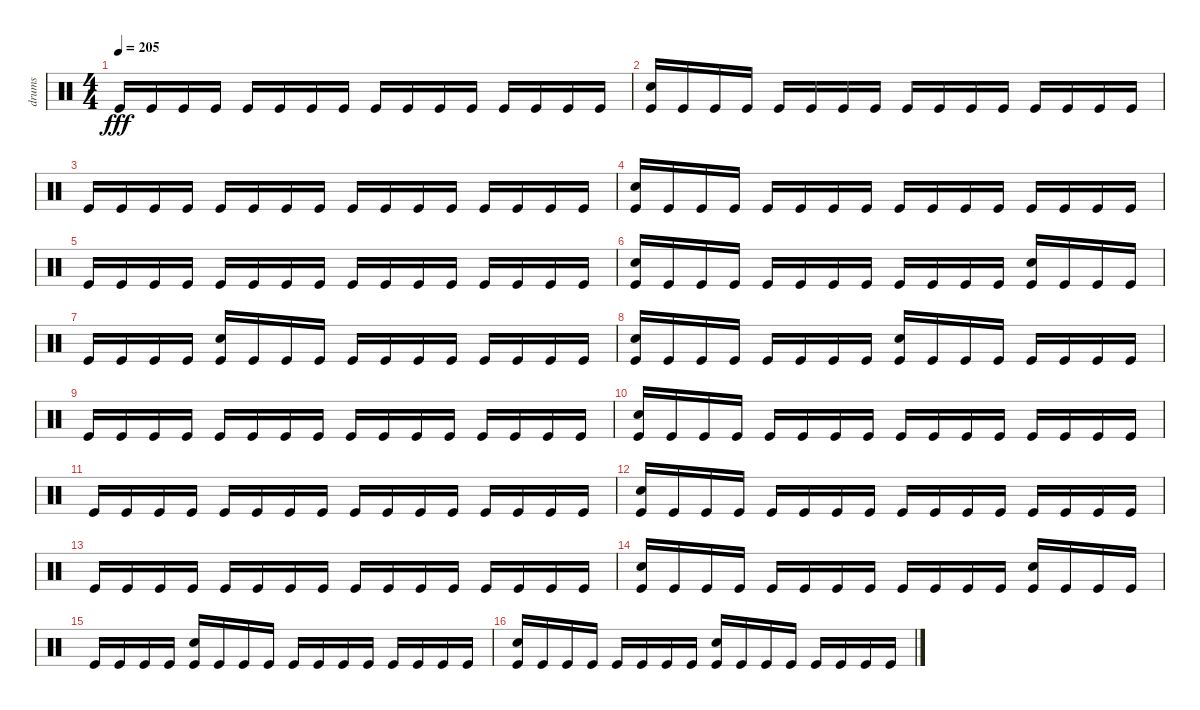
\track ("drums" "drums") {instrument percussion}
\staff {score}
\articulation defaults
\ts (4 4)
\tempo 205
\clef neutral
\ks c "Kick (hit)".16{dy fff} "Kick (hit)".16 "Kick (hit)".16 "Kick (hit)".16 "Kick (hit)".16 "Kick (hit)".16 "Kick (hit)".16 "Kick (hit)".16 "Kick (hit)".16 "Kick (hit)".16 "Kick (hit)".16 "Kick (hit)".16 "Kick (hit)".16 "Kick (hit)".16 "Kick (hit)".16 "Kick (hit)".16
|
("Electric Snare (hit)" "Kick (hit)").16 "Kick (hit)".16 "Kick (hit)".16 "Kick (hit)".16 "Kick (hit)".16 "Kick (hit)".16 "Kick (hit)".16 "Kick (hit)".16 "Kick (hit)".16 "Kick (hit)".16 "Kick (hit)".16 "Kick (hit)".16 "Kick (hit)".16 "Kick (hit)".16 "Kick (hit)".16 "Kick (hit)".16 |
"Kick (hit)".16 "Kick (hit)".16 "Kick (hit)".16 "Kick (hit)".16 "Kick (hit)".16 "Kick (hit)".16 "Kick (hit)".16 "Kick (hit)".16 "Kick (hit)".16 "Kick (hit)".16 "Kick (hit)".16 "Kick (hit)".16 "Kick (hit)".16 "Kick (hit)".16 "Kick (hit)".16 "Kick (hit)".16 |
("Electric Snare (hit)" "Kick (hit)").16 "Kick (hit)".16 "Kick (hit)".16 "Kick (hit)".16 "Kick (hit)".16 "Kick (hit)".16 "Kick (hit)".16 "Kick (hit)".16 "Kick (hit)".16 "Kick (hit)".16 "Kick (hit)".16 "Kick (hit)".16 "Kick (hit)".16 "Kick (hit)".16 "Kick (hit)".16 "Kick (hit)".16 |
"Kick (hit)".16 "Kick (hit)".16 "Kick (hit)".16 "Kick (hit)".16 "Kick (hit)".16 "Kick (hit)".16 "Kick (hit)".16 "Kick (hit)".16 "Kick (hit)".16 "Kick (hit)".16 "Kick (hit)".16 "Kick (hit)".16 "Kick (hit)".16 "Kick (hit)".16 "Kick (hit)".16 "Kick (hit)".16 |
("Electric Snare (hit)" "Kick (hit)").16 "Kick (hit)".16 "Kick (hit)".16 "Kick (hit)".16 "Kick (hit)".16 "Kick (hit)".16 "Kick (hit)".16 "Kick (hit)".16 "Kick (hit)".16 "Kick (hit)".16 "Kick (hit)".16 "Kick (hit)".16 ("Electric Snare (hit)" "Kick (hit)").16 "Kick (hit)".16 "Kick (hit)".16 "Kick (hit)".16 |
"Kick (hit)".16 "Kick (hit)".16 "Kick (hit)".16 "Kick (hit)".16 ("Electric Snare (hit)" "Kick (hit)").16 "Kick (hit)".16 "Kick (hit)".16 "Kick (hit)".16 "Kick (hit)".16 "Kick (hit)".16 "Kick (hit)".16 "Kick (hit)".16 "Kick (hit)".16 "Kick (hit)".16 "Kick (hit)".16 "Kick (hit)".16 |
("Electric Snare (hit)" "Kick (hit)").16 "Kick (hit)".16 "Kick (hit)".16 "Kick (hit)".16 "Kick (hit)".16 "Kick (hit)".16 "Kick (hit)".16 "Kick (hit)".16 ("Electric Snare (hit)" "Kick (hit)").16 "Kick (hit)".16 "Kick (hit)".16 "Kick (hit)".16 "Kick (hit)".16 "Kick (hit)".16 "Kick (hit)".16 "Kick (hit)".16 |
"Kick (hit)".16 "Kick (hit)".16 "Kick (hit)".16 "Kick (hit)".16 "Kick (hit)".16 "Kick (hit)".16 "Kick (hit)".16 "Kick (hit)".16 "Kick (hit)".16 "Kick (hit)".16 "Kick (hit)".16 "Kick (hit)".16 "Kick (hit)".16 "Kick (hit)".16 "Kick (hit)".16 "Kick (hit)".16 |
("Electric Snare (hit)" "Kick (hit)").16 "Kick (hit)".16 "Kick (hit)".16 "Kick (hit)".16 "Kick (hit)".16 "Kick (hit)".16 "Kick (hit)".16 "Kick (hit)".16 "Kick (hit)".16 "Kick (hit)".16 "Kick (hit)".16 "Kick (hit)".16 "Kick (hit)".16 "Kick (hit)".16 "Kick (hit)".16 "Kick (hit)".16 |
"Kick (hit)".16 "Kick (hit)".16 "Kick (hit)".16 "Kick (hit)".16 "Kick (hit)".16 "Kick (hit)".16 "Kick (hit)".16 "Kick (hit)".16 "Kick (hit)".16 "Kick (hit)".16 "Kick (hit)".16 "Kick (hit)".16 "Kick (hit)".16 "Kick (hit)".16 "Kick (hit)".16 "Kick (hit)".16 |
("Electric Snare (hit)" "Kick (hit)").16 "Kick (hit)".16 "Kick (hit)".16 "Kick (hit)".16 "Kick (hit)".16 "Kick (hit)".16 "Kick (hit)".16 "Kick (hit)".16 "Kick (hit)".16 "Kick (hit)".16 "Kick (hit)".16 "Kick (hit)".16 "Kick (hit)".16 "Kick (hit)".16 "Kick (hit)".16 "Kick (hit)".16 |
"Kick (hit)".16 "Kick (hit)".16 "Kick (hit)".16 "Kick (hit)".16 "Kick (hit)".16 "Kick (hit)".16 "Kick (hit)".16 "Kick (hit)".16 "Kick (hit)".16 "Kick (hit)".16 "Kick (hit)".16 "Kick (hit)".16 "Kick (hit)".16 "Kick (hit)".16 "Kick (hit)".16 "Kick (hit)".16 |
("Electric Snare (hit)" "Kick (hit)").16 "Kick (hit)".16 "Kick (hit)".16 "Kick (hit)".16 "Kick (hit)".16 "Kick (hit)".16 "Kick (hit)".16 "Kick (hit)".16 "Kick (hit)".16 "Kick (hit)".16 "Kick (hit)".16 "Kick (hit)".16 ("Electric Snare (hit)" "Kick (hit)").16 "Kick (hit)".16 "Kick (hit)".16 "Kick (hit)".16 |
"Kick (hit)".16 "Kick (hit)".16 "Kick (hit)".16 "Kick (hit)".16 ("Electric Snare (hit)" "Kick (hit)").16 "Kick (hit)".16 "Kick (hit)".16 "Kick (hit)".16 "Kick (hit)".16 "Kick (hit)".16 "Kick (hit)".16 "Kick (hit)".16 "Kick (hit)".16 "Kick (hit)".16 "Kick (hit)".16 "Kick (hit)".16 |
("Electric Snare (hit)" "Kick (hit)").16 "Kick (hit)".16 "Kick (hit)".16 "Kick (hit)".16 "Kick (hit)".16 "Kick (hit)".16 "Kick (hit)".16 "Kick (hit)".16 ("Electric Snare (hit)" "Kick (hit)").16 "Kick (hit)".16 "Kick (hit)".16 "Kick (hit)".16 "Kick (hit)".16 "Kick (hit)".16 "Kick (hit)".16 "Kick (hit)".16
